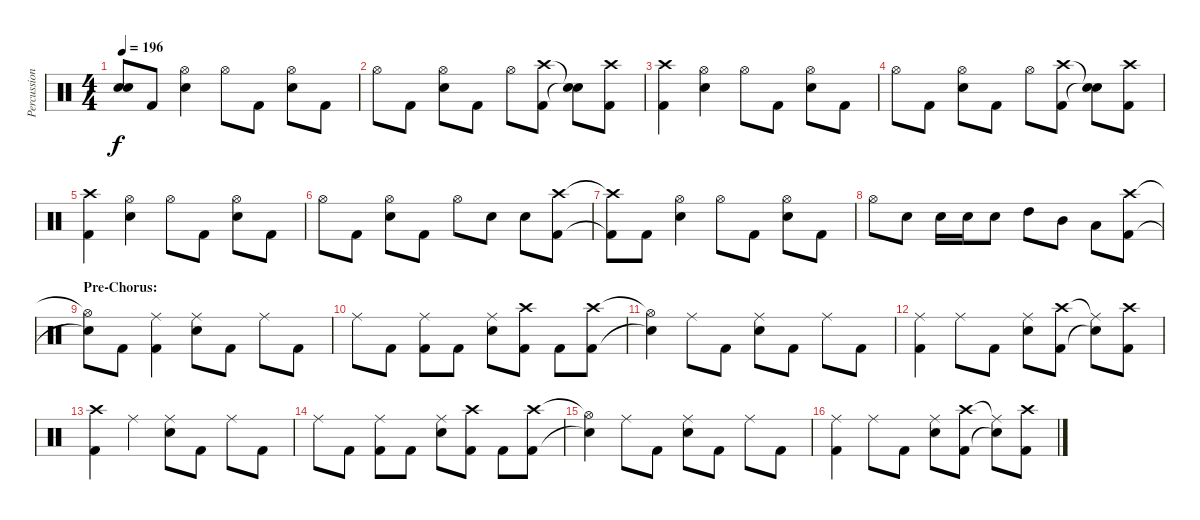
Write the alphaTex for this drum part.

\track ("Percussion" "Percussion") {instrument percussion}
\staff {score}
\articulation defaults
\ts (4 4)
\tempo 196
\clef neutral
\ks c
("Snare (hit)"{t} "Snare (hit)"{t}).8{dy f} "Kick (hit) 2".8 ("Hi-Hat (open)" "Snare (hit) 2").4 "Hi-Hat (open)".8 "Kick (hit) 2".8 ("Hi-Hat (open)" "Snare (hit) 2").8 "Kick (hit) 2".8 |
"Hi-Hat (open)".8 "Kick (hit) 2".8 ("Hi-Hat (open)" "Snare (hit) 2").8 "Kick (hit) 2".8 "Hi-Hat (open)".8 ("Crash high (hit)" "Kick (hit) 2").8 ("Snare (hit)"{t} "Snare (hit)"{t}).8 ("Crash high (hit)" "Kick (hit) 2").8 |
("Crash high (hit)" "Kick (hit) 2").4 ("Hi-Hat (open)" "Snare (hit) 2").4 "Hi-Hat (open)".8 "Kick (hit) 2".8 ("Hi-Hat (open)" "Snare (hit) 2").8 "Kick (hit) 2".8 |
"Hi-Hat (open)".8 "Kick (hit) 2".8 ("Hi-Hat (open)" "Snare (hit) 2").8 "Kick (hit) 2".8 "Hi-Hat (open)".8 ("Crash high (hit)" "Kick (hit) 2").8 ("Snare (hit)"{t} "Snare (hit)"{t}).8 ("Crash high (hit)" "Kick (hit) 2").8 |
("Crash high (hit)" "Kick (hit) 2").4 ("Hi-Hat (open)" "Snare (hit) 2").4 "Hi-Hat (open)".8 "Kick (hit) 2".8 ("Hi-Hat (open)" "Snare (hit) 2").8 "Kick (hit) 2".8 |
"Hi-Hat (open)".8 "Kick (hit) 2".8 ("Hi-Hat (open)" "Snare (hit) 2").8 "Kick (hit) 2".8 "Hi-Hat (open)".8 "Snare (hit) 2".8 "Snare (hit) 2".8 ("Crash high (hit)" "Kick (hit) 2").8 |
("Crash high (hit)"{t} "Kick (hit) 2"{t}).8 "Kick (hit) 2".8 ("Hi-Hat (open)" "Snare (hit) 2").4 "Hi-Hat (open)".8 "Kick (hit) 2".8 ("Hi-Hat (open)" "Snare (hit) 2").8 "Kick (hit) 2".8 |
"Hi-Hat (open)".8 "Snare (hit) 2".8 "Snare (hit) 2".16 "Snare (hit) 2".16 "Snare (hit) 2".8 "High Tom (hit)".8 "Mid Tom (hit)".8 "Low Tom (hit)".8 ("Crash high (hit)" "Kick (hit) 2").8 |
\section ("" "Pre-Chorus:")
("Hi-Hat (open)"{t} "Snare (hit)"{t}).8 "Kick (hit) 2".8 ("Ride (middle)" "Kick (hit) 2").4 ("Ride (middle)" "Snare (hit) 2").8 "Kick (hit) 2".8 "Ride (middle)".8 "Kick (hit) 2".8 |
"Ride (middle)".8 "Kick (hit) 2".8 ("Ride (middle)" "Kick (hit) 2").8 "Kick (hit) 2".8 ("Ride (middle)" "Snare (hit) 2").8 ("Crash high (hit)" "Kick (hit) 2").8 "Kick (hit) 2".8 ("Crash high (hit)" "Kick (hit) 2").8 |
("Hi-Hat (open)"{t} "Snare (hit)"{t}).4 "Ride (middle)".8 "Kick (hit) 2".8 ("Ride (middle)" "Snare (hit) 2").8 "Kick (hit) 2".8 "Ride (middle)".8 "Kick (hit) 2".8 |
("Ride (middle)" "Kick (hit) 2").4 "Ride (middle)".8 "Kick (hit) 2".8 ("Ride (middle)" "Snare (hit) 2").8 ("Crash high (hit)" "Kick (hit) 2").8 ("Ride (middle)"{t} "Snare (hit) 2"{t}).8 ("Crash high (hit)" "Kick (hit) 2").8 |
("Crash high (hit)" "Kick (hit) 2").4 "Ride (middle)".4 ("Ride (middle)" "Snare (hit) 2").8 "Kick (hit) 2".8 "Ride (middle)".8 "Kick (hit) 2".8 |
"Ride (middle)".8 "Kick (hit) 2".8 ("Ride (middle)" "Kick (hit) 2").8 "Kick (hit) 2".8 ("Ride (middle)" "Snare (hit) 2").8 ("Crash high (hit)" "Kick (hit) 2").8 "Kick (hit) 2".8 ("Crash high (hit)" "Kick (hit) 2").8 |
("Hi-Hat (open)"{t} "Snare (hit)"{t}).4 "Ride (middle)".8 "Kick (hit) 2".8 ("Ride (middle)" "Snare (hit) 2").8 "Kick (hit) 2".8 "Ride (middle)".8 "Kick (hit) 2".8 |
("Ride (middle)" "Kick (hit) 2").4 "Ride (middle)".8 "Kick (hit) 2".8 ("Ride (middle)" "Snare (hit) 2").8 ("Crash high (hit)" "Kick (hit) 2").8 ("Ride (middle)"{t} "Snare (hit) 2"{t}).8 ("Crash high (hit)" "Kick (hit) 2").8
